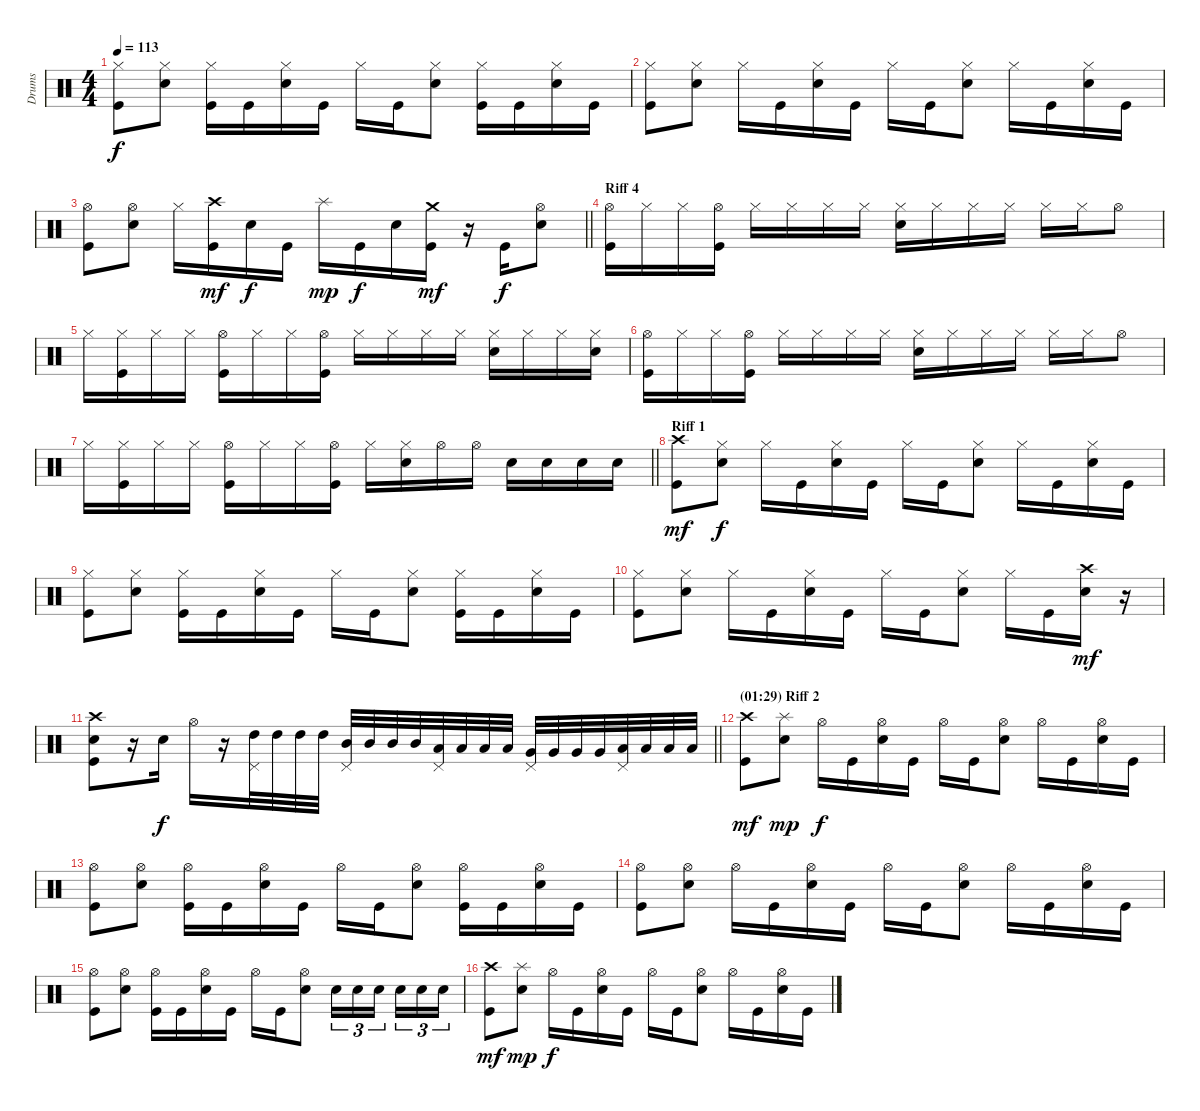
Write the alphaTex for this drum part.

\track ("Drums" "Drums") {instrument percussion}
\staff {score}
\articulation defaults
\ts (4 4)
\tempo 113
\clef neutral
\ks c
("Hi-Hat (closed)" "Kick (hit)").8{dy f} ("Hi-Hat (closed)" "Snare (hit) 2").8 ("Hi-Hat (closed)" "Kick (hit)").16 "Kick (hit)".16 ("Hi-Hat (closed)" "Snare (hit) 2").16 "Kick (hit)".16 "Hi-Hat (closed)".16 "Kick (hit)".16 ("Hi-Hat (closed)" "Snare (hit) 2").8 ("Hi-Hat (closed)" "Kick (hit)").16 "Kick (hit)".16 ("Hi-Hat (closed)" "Snare (hit) 2").16 "Kick (hit)".16 |
("Hi-Hat (closed)" "Kick (hit)").8 ("Hi-Hat (closed)" "Snare (hit) 2").8 "Hi-Hat (closed)".16 "Kick (hit)".16 ("Hi-Hat (closed)" "Snare (hit) 2").16 "Kick (hit)".16 "Hi-Hat (closed)".16 "Kick (hit)".16 ("Hi-Hat (closed)" "Snare (hit) 2").8 "Hi-Hat (closed)".16 "Kick (hit)".16 ("Hi-Hat (closed)" "Snare (hit) 2").16 "Kick (hit)".16 |
\barLineRight lightlight
("Hi-Hat (open)" "Kick (hit)").8 ("Hi-Hat (open)" "Snare (hit) 2").8 "Hi-Hat (closed)".16 ("Crash high (hit)" "Kick (hit)").16{dy mf} "Snare (hit) 2".16{dy f} "Kick (hit)".16 "Splash (hit)".16{dy mp} "Kick (hit)".16{dy f} "Snare (hit) 2".16 ("Crash medium (hit)" "Kick (hit)").16{dy mf} r.16 "Kick (hit)".16{dy f} ("Hi-Hat (open)" "Snare (hit) 2").8 |
\section ("" "Riff 4")
("Hi-Hat (open)" "Kick (hit)").16 "Hi-Hat (closed)".16 "Hi-Hat (closed)".16 ("Hi-Hat (open)" "Kick (hit)").16 "Hi-Hat (closed)".16 "Hi-Hat (closed)".16 "Hi-Hat (closed)".16 "Hi-Hat (closed)".16 ("Hi-Hat (closed)" "Snare (hit) 2").16 "Hi-Hat (closed)".16 "Hi-Hat (closed)".16 "Hi-Hat (closed)".16 "Hi-Hat (closed)".16 "Hi-Hat (closed)".16 "Hi-Hat (open)".8 |
"Hi-Hat (closed)".16 ("Hi-Hat (closed)" "Kick (hit)").16 "Hi-Hat (closed)".16 "Hi-Hat (closed)".16 ("Hi-Hat (open)" "Kick (hit)").16 "Hi-Hat (closed)".16 "Hi-Hat (closed)".16 ("Hi-Hat (open)" "Kick (hit)").16 "Hi-Hat (closed)".16 "Hi-Hat (closed)".16 "Hi-Hat (closed)".16 "Hi-Hat (closed)".16 ("Hi-Hat (closed)" "Snare (hit) 2").16 "Hi-Hat (closed)".16 "Hi-Hat (closed)".16 ("Hi-Hat (closed)" "Snare (hit) 2").16 |
("Hi-Hat (open)" "Kick (hit)").16 "Hi-Hat (closed)".16 "Hi-Hat (closed)".16 ("Hi-Hat (open)" "Kick (hit)").16 "Hi-Hat (closed)".16 "Hi-Hat (closed)".16 "Hi-Hat (closed)".16 "Hi-Hat (closed)".16 ("Hi-Hat (closed)" "Snare (hit) 2").16 "Hi-Hat (closed)".16 "Hi-Hat (closed)".16 "Hi-Hat (closed)".16 "Hi-Hat (closed)".16 "Hi-Hat (closed)".16 "Hi-Hat (open)".8 |
\barLineRight lightlight "Hi-Hat (closed)".16
("Hi-Hat (closed)" "Kick (hit)").16 "Hi-Hat (closed)".16 "Hi-Hat (closed)".16 ("Hi-Hat (open)" "Kick (hit)").16 "Hi-Hat (closed)".16 "Hi-Hat (closed)".16 ("Hi-Hat (open)" "Kick (hit)").16 "Hi-Hat (closed)".16 ("Hi-Hat (closed)" "Snare (hit) 2").16 "Hi-Hat (open)".16 "Hi-Hat (open)".16 "Snare (hit) 2".16 "Snare (hit) 2".16 "Snare (hit) 2".16 "Snare (hit) 2".16 |
\section ("" "Riff 1")
("Crash high (hit)" "Kick (hit)").8{dy mf} ("Hi-Hat (closed)" "Snare (hit) 2").8{dy f} "Hi-Hat (closed)".16 "Kick (hit)".16 ("Hi-Hat (closed)" "Snare (hit) 2").16 "Kick (hit)".16 "Hi-Hat (closed)".16 "Kick (hit)".16 ("Hi-Hat (closed)" "Snare (hit) 2").8 "Hi-Hat (closed)".16 "Kick (hit)".16 ("Hi-Hat (closed)" "Snare (hit) 2").16 "Kick (hit)".16 |
("Hi-Hat (closed)" "Kick (hit)").8 ("Hi-Hat (closed)" "Snare (hit) 2").8 ("Hi-Hat (closed)" "Kick (hit)").16 "Kick (hit)".16 ("Hi-Hat (closed)" "Snare (hit) 2").16 "Kick (hit)".16 "Hi-Hat (closed)".16 "Kick (hit)".16 ("Hi-Hat (closed)" "Snare (hit) 2").8 ("Hi-Hat (closed)" "Kick (hit)").16 "Kick (hit)".16 ("Hi-Hat (closed)" "Snare (hit) 2").16 "Kick (hit)".16 |
("Hi-Hat (closed)" "Kick (hit)").8 ("Hi-Hat (closed)" "Snare (hit) 2").8 "Hi-Hat (closed)".16 "Kick (hit)".16 ("Hi-Hat (closed)" "Snare (hit) 2").16 "Kick (hit)".16 "Hi-Hat (closed)".16 "Kick (hit)".16 ("Hi-Hat (closed)" "Snare (hit) 2").8 "Hi-Hat (closed)".16 "Kick (hit)".16 ("Crash high (hit)" "Snare (hit) 2").16{dy mf} r.16 |
\barLineRight lightlight
("Crash high (hit)" "Snare (hit) 2" "Kick (hit)").8 r.16 "Snare (hit) 2".16{dy f} "Hi-Hat (open)".16 r.16 ("Pedal Hi-Hat (hit)" "High Tom (hit)").32 "High Tom (hit)".32 "High Tom (hit)".32 "High Tom (hit)".32 ("Pedal Hi-Hat (hit)" "Mid Tom (hit)").32 "Mid Tom (hit)".32 "Mid Tom (hit)".32 "Mid Tom (hit)".32 ("Pedal Hi-Hat (hit)" "Low Tom (hit)").32 "Low Tom (hit)".32 "Low Tom (hit)".32 "Low Tom (hit)".32 ("Pedal Hi-Hat (hit)" "Very Low Tom (hit)").32 "Very Low Tom (hit)".32 "Very Low Tom (hit)".32 "Very Low Tom (hit)".32 ("Pedal Hi-Hat (hit)" "Low Floor Tom (hit)").32 "Low Floor Tom (hit)".32 "Low Floor Tom (hit)".32 "Low Floor Tom (hit)".32 |
\section ("" "(01:29) Riff 2")
("Crash high (hit)" "Kick (hit)").8{dy mf} ("Splash (hit)" "Snare (hit) 2").8{dy mp} "Hi-Hat (open)".16{dy f} "Kick (hit)".16 ("Hi-Hat (open)" "Snare (hit) 2").16 "Kick (hit)".16 "Hi-Hat (open)".16 "Kick (hit)".16 ("Hi-Hat (open)" "Snare (hit) 2").8 "Hi-Hat (open)".16 "Kick (hit)".16 ("Hi-Hat (open)" "Snare (hit) 2").16 "Kick (hit)".16 |
("Hi-Hat (open)" "Kick (hit)").8 ("Hi-Hat (open)" "Snare (hit) 2").8 ("Hi-Hat (open)" "Kick (hit)").16 "Kick (hit)".16 ("Hi-Hat (open)" "Snare (hit) 2").16 "Kick (hit)".16 "Hi-Hat (open)".16 "Kick (hit)".16 ("Hi-Hat (open)" "Snare (hit) 2").8 ("Hi-Hat (open)" "Kick (hit)").16 "Kick (hit)".16 ("Hi-Hat (open)" "Snare (hit) 2").16 "Kick (hit)".16 |
("Hi-Hat (open)" "Kick (hit)").8 ("Hi-Hat (open)" "Snare (hit) 2").8 "Hi-Hat (open)".16 "Kick (hit)".16 ("Hi-Hat (open)" "Snare (hit) 2").16 "Kick (hit)".16 "Hi-Hat (open)".16 "Kick (hit)".16 ("Hi-Hat (open)" "Snare (hit) 2").8 "Hi-Hat (open)".16 "Kick (hit)".16 ("Hi-Hat (open)" "Snare (hit) 2").16 "Kick (hit)".16 |
("Hi-Hat (open)" "Kick (hit)").8 ("Hi-Hat (open)" "Snare (hit) 2").8 ("Hi-Hat (open)" "Kick (hit)").16 "Kick (hit)".16 ("Hi-Hat (open)" "Snare (hit) 2").16 "Kick (hit)".16 "Hi-Hat (open)".16 "Kick (hit)".16 ("Hi-Hat (open)" "Snare (hit) 2").8 "Snare (hit) 2".16{tu (3 2)} "Snare (hit) 2".16{tu (3 2)} "Snare (hit) 2".16{tu (3 2) beam splitsecondary} "Snare (hit) 2".16{tu (3 2)} "Snare (hit) 2".16{tu (3 2)} "Snare (hit) 2".16{tu (3 2)} |
("Crash high (hit)" "Kick (hit)").8{dy mf} ("Splash (hit)" "Snare (hit) 2").8{dy mp} "Hi-Hat (open)".16{dy f} "Kick (hit)".16 ("Hi-Hat (open)" "Snare (hit) 2").16 "Kick (hit)".16 "Hi-Hat (open)".16 "Kick (hit)".16 ("Hi-Hat (open)" "Snare (hit) 2").8 "Hi-Hat (open)".16 "Kick (hit)".16 ("Hi-Hat (open)" "Snare (hit) 2").16 "Kick (hit)".16
